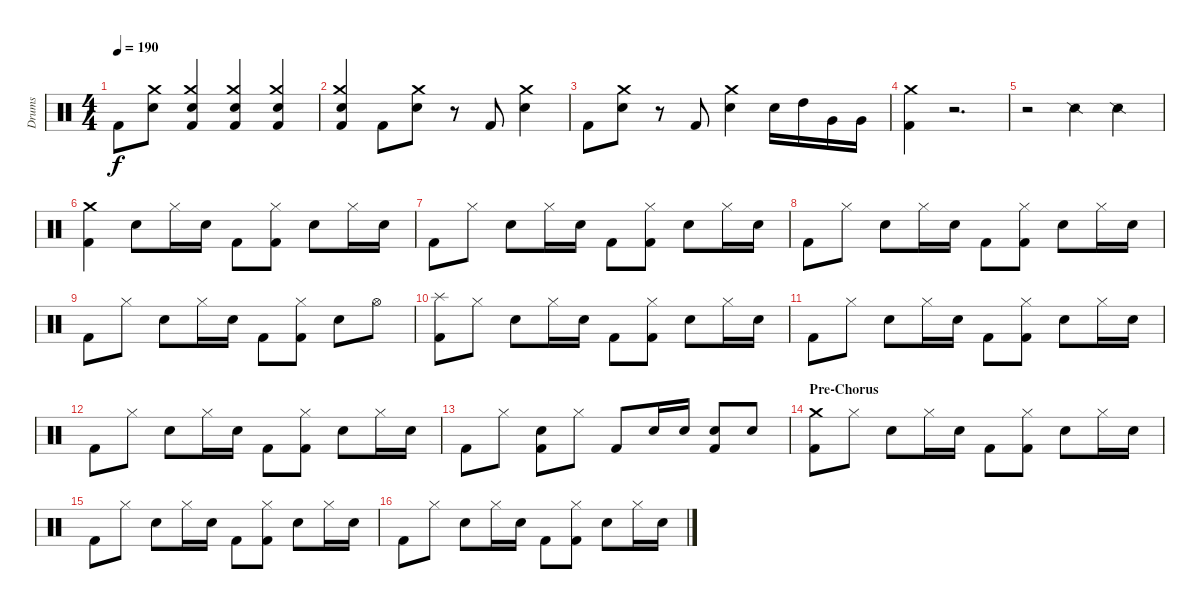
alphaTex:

\track ("Drums" "Drums") {instrument percussion}
\staff {score}
\articulation defaults
\ts (4 4)
\tempo 190
\clef neutral
\ks c "Kick (hit) 2".8{dy f}
("Crash medium (hit)" "Snare (hit) 2").8 ("Crash medium (hit)" "Snare (hit) 2" "Kick (hit) 2").4 ("Crash medium (hit)" "Snare (hit) 2" "Kick (hit) 2").4 ("Crash medium (hit)" "Snare (hit) 2" "Kick (hit) 2").4 |
("Crash medium (hit)" "Snare (hit) 2" "Kick (hit) 2").4 "Kick (hit) 2".8 ("Crash medium (hit)" "Snare (hit) 2").8 r.8 "Kick (hit) 2".8 ("Crash medium (hit)" "Snare (hit) 2").4 |
"Kick (hit) 2".8 ("Crash medium (hit)" "Snare (hit) 2").8 r.8 "Kick (hit) 2".8 ("Crash medium (hit)" "Snare (hit) 2").4 "Snare (hit) 2".16 "High Tom (hit)".16 "Very Low Tom (hit)".16 "Very Low Tom (hit)".16 |
("Crash medium (hit)" "Kick (hit) 2").4 r.2{d} |
r.2 "Snare (side stick) 2".4 "Snare (side stick) 2".4 |
("Crash medium (hit)" "Kick (hit) 2").4 "Snare (hit) 2".8 "Hi-Hat (closed)".16 "Snare (hit) 2".16 "Kick (hit) 2".8 ("Hi-Hat (closed)" "Kick (hit) 2").8 "Snare (hit) 2".8 "Hi-Hat (closed)".16 "Snare (hit) 2".16 |
"Kick (hit) 2".8 "Hi-Hat (closed)".8 "Snare (hit) 2".8 "Hi-Hat (closed)".16 "Snare (hit) 2".16 "Kick (hit) 2".8 ("Hi-Hat (closed)" "Kick (hit) 2").8 "Snare (hit) 2".8 "Hi-Hat (closed)".16 "Snare (hit) 2".16 |
"Kick (hit) 2".8 "Hi-Hat (closed)".8 "Snare (hit) 2".8 "Hi-Hat (closed)".16 "Snare (hit) 2".16 "Kick (hit) 2".8 ("Hi-Hat (closed)" "Kick (hit) 2").8 "Snare (hit) 2".8 "Hi-Hat (closed)".16 "Snare (hit) 2".16 |
"Kick (hit) 2".8 "Hi-Hat (closed)".8 "Snare (hit) 2".8 "Hi-Hat (closed)".16 "Snare (hit) 2".16 "Kick (hit) 2".8 ("Hi-Hat (closed)" "Kick (hit) 2").8 "Snare (hit) 2".8 "Hi-Hat (open)".8 |
("Splash (hit)" "Kick (hit) 2").8 "Hi-Hat (closed)".8 "Snare (hit) 2".8 "Hi-Hat (closed)".16 "Snare (hit) 2".16 "Kick (hit) 2".8 ("Hi-Hat (closed)" "Kick (hit) 2").8 "Snare (hit) 2".8 "Hi-Hat (closed)".16 "Snare (hit) 2".16 |
"Kick (hit) 2".8 "Hi-Hat (closed)".8 "Snare (hit) 2".8 "Hi-Hat (closed)".16 "Snare (hit) 2".16 "Kick (hit) 2".8 ("Hi-Hat (closed)" "Kick (hit) 2").8 "Snare (hit) 2".8 "Hi-Hat (closed)".16 "Snare (hit) 2".16 |
"Kick (hit) 2".8 "Hi-Hat (closed)".8 "Snare (hit) 2".8 "Hi-Hat (closed)".16 "Snare (hit) 2".16 "Kick (hit) 2".8 ("Hi-Hat (closed)" "Kick (hit) 2").8 "Snare (hit) 2".8 "Hi-Hat (closed)".16 "Snare (hit) 2".16 |
"Kick (hit) 2".8 "Hi-Hat (closed)".8 ("Snare (hit) 2" "Kick (hit) 2").8 "Hi-Hat (closed)".8 "Kick (hit) 2".8 "Snare (hit) 2".16 "Snare (hit) 2".16 ("Snare (hit) 2" "Kick (hit) 2").8 "Snare (hit) 2".8 |
\section ("" "Pre-Chorus")
("Crash medium (hit)" "Kick (hit) 2").8 "Hi-Hat (closed)".8 "Snare (hit) 2".8 "Hi-Hat (closed)".16 "Snare (hit) 2".16 "Kick (hit) 2".8 ("Hi-Hat (closed)" "Kick (hit) 2").8 "Snare (hit) 2".8 "Hi-Hat (closed)".16 "Snare (hit) 2".16 |
"Kick (hit) 2".8 "Hi-Hat (closed)".8 "Snare (hit) 2".8 "Hi-Hat (closed)".16 "Snare (hit) 2".16 "Kick (hit) 2".8 ("Hi-Hat (closed)" "Kick (hit) 2").8 "Snare (hit) 2".8 "Hi-Hat (closed)".16 "Snare (hit) 2".16 |
"Kick (hit) 2".8 "Hi-Hat (closed)".8 "Snare (hit) 2".8 "Hi-Hat (closed)".16 "Snare (hit) 2".16 "Kick (hit) 2".8 ("Hi-Hat (closed)" "Kick (hit) 2").8 "Snare (hit) 2".8 "Hi-Hat (closed)".16 "Snare (hit) 2".16
